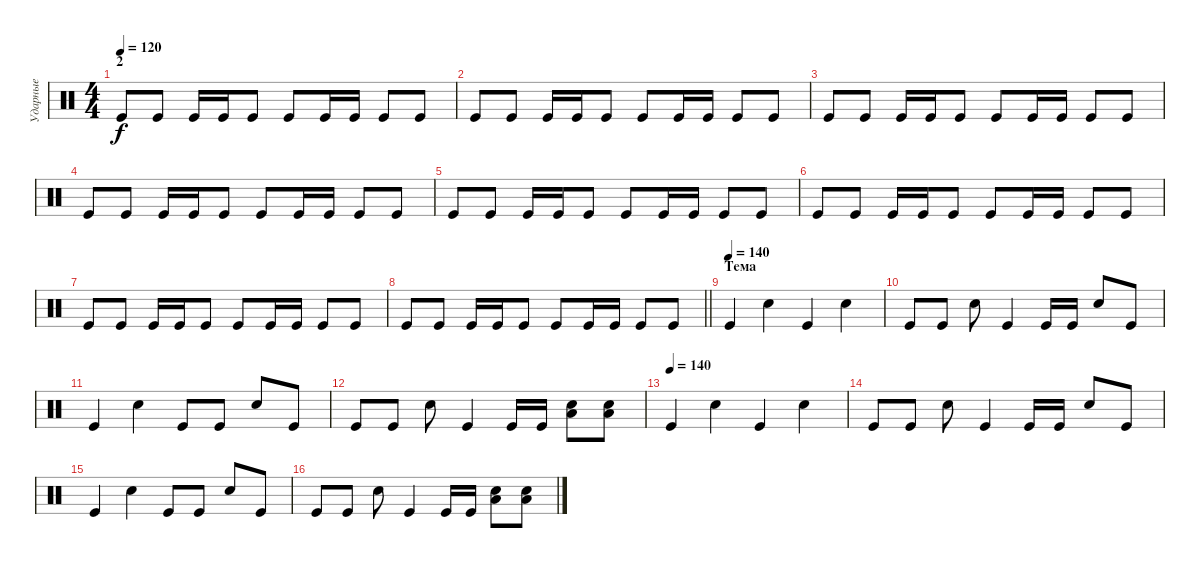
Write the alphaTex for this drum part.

\track ("Ударные" "Ударные") {instrument percussion}
\staff {score}
\articulation defaults
\ts (4 4)
\section ("" "2")
\tempo 120
\clef neutral
\ks c "Kick (hit)".8{dy f} "Kick (hit)".8 "Kick (hit)".16 "Kick (hit)".16 "Kick (hit)".8 "Kick (hit)".8 "Kick (hit)".16 "Kick (hit)".16 "Kick (hit)".8 "Kick (hit)".8
|
"Kick (hit)".8 "Kick (hit)".8 "Kick (hit)".16 "Kick (hit)".16 "Kick (hit)".8 "Kick (hit)".8 "Kick (hit)".16 "Kick (hit)".16 "Kick (hit)".8 "Kick (hit)".8 |
"Kick (hit)".8 "Kick (hit)".8 "Kick (hit)".16 "Kick (hit)".16 "Kick (hit)".8 "Kick (hit)".8 "Kick (hit)".16 "Kick (hit)".16 "Kick (hit)".8 "Kick (hit)".8 |
"Kick (hit)".8 "Kick (hit)".8 "Kick (hit)".16 "Kick (hit)".16 "Kick (hit)".8 "Kick (hit)".8 "Kick (hit)".16 "Kick (hit)".16 "Kick (hit)".8 "Kick (hit)".8 |
"Kick (hit)".8 "Kick (hit)".8 "Kick (hit)".16 "Kick (hit)".16 "Kick (hit)".8 "Kick (hit)".8 "Kick (hit)".16 "Kick (hit)".16 "Kick (hit)".8 "Kick (hit)".8 |
"Kick (hit)".8 "Kick (hit)".8 "Kick (hit)".16 "Kick (hit)".16 "Kick (hit)".8 "Kick (hit)".8 "Kick (hit)".16 "Kick (hit)".16 "Kick (hit)".8 "Kick (hit)".8 |
"Kick (hit)".8 "Kick (hit)".8 "Kick (hit)".16 "Kick (hit)".16 "Kick (hit)".8 "Kick (hit)".8 "Kick (hit)".16 "Kick (hit)".16 "Kick (hit)".8 "Kick (hit)".8 |
\barLineRight lightlight "Kick (hit)".8 "Kick (hit)".8 "Kick (hit)".16 "Kick (hit)".16 "Kick (hit)".8 "Kick (hit)".8 "Kick (hit)".16 "Kick (hit)".16 "Kick (hit)".8 "Kick (hit)".8
|
\section ("" "Тема")
\tempo (140)
"Kick (hit)".4 "Electric Snare (hit)".4 "Kick (hit)".4 "Electric Snare (hit)".4 |
"Kick (hit)".8 "Kick (hit)".8 "Electric Snare (hit)".8 "Kick (hit)".4 "Kick (hit)".16 "Kick (hit)".16 "Electric Snare (hit)".8 "Kick (hit)".8 |
"Kick (hit)".4 "Electric Snare (hit)".4 "Kick (hit)".8 "Kick (hit)".8 "Electric Snare (hit)".8 "Kick (hit)".8 |
"Kick (hit)".8 "Kick (hit)".8 "Electric Snare (hit)".8 "Kick (hit)".4 "Kick (hit)".16 "Kick (hit)".16 ("Low Floor Tom (hit)" "Electric Snare (hit)").8 ("Low Floor Tom (hit)" "Electric Snare (hit)").8 |
\tempo (140)
"Kick (hit)".4 "Electric Snare (hit)".4 "Kick (hit)".4 "Electric Snare (hit)".4 |
"Kick (hit)".8 "Kick (hit)".8 "Electric Snare (hit)".8 "Kick (hit)".4 "Kick (hit)".16 "Kick (hit)".16 "Electric Snare (hit)".8 "Kick (hit)".8 |
"Kick (hit)".4 "Electric Snare (hit)".4 "Kick (hit)".8 "Kick (hit)".8 "Electric Snare (hit)".8 "Kick (hit)".8 |
"Kick (hit)".8 "Kick (hit)".8 "Electric Snare (hit)".8 "Kick (hit)".4 "Kick (hit)".16 "Kick (hit)".16 ("Low Floor Tom (hit)" "Electric Snare (hit)").8 ("Low Floor Tom (hit)" "Electric Snare (hit)").8
